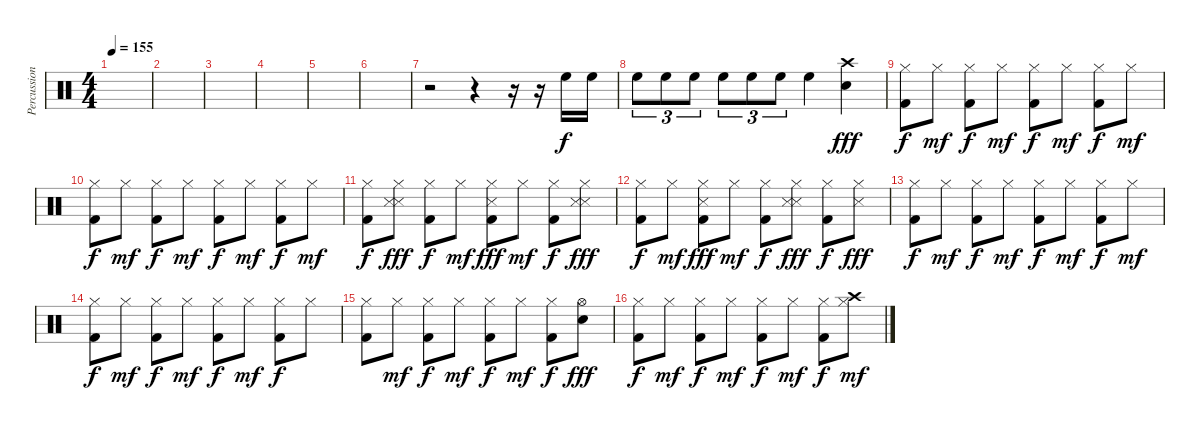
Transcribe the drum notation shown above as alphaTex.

\track ("Percussion" "Percussion") {instrument percussion}
\staff {score}
\articulation defaults
\ts (4 4)
\tempo 155
\clef neutral
\ks c
|
|
|
|
|
|
r.2 r.4 r.16 r.16 "High Floor Tom (hit)".16 "High Floor Tom (hit)".16 |
"High Floor Tom (hit)".8{tu (3 2)} "High Floor Tom (hit)".8{tu (3 2)} "High Floor Tom (hit)".8{tu (3 2)} "High Floor Tom (hit)".8{tu (3 2)} "High Floor Tom (hit)".8{tu (3 2)} "High Floor Tom (hit)".8{tu (3 2)} "High Floor Tom (hit)".4 ("Crash high (hit)" "Snare (hit) 2").4{dy fff} |
("Hi-Hat (closed)" "Kick (hit) 2").8{dy f} "Hi-Hat (closed)".8{dy mf} ("Hi-Hat (closed)" "Kick (hit) 2").8{dy f} "Hi-Hat (closed)".8{dy mf} ("Hi-Hat (closed)" "Kick (hit) 2").8{dy f} "Hi-Hat (closed)".8{dy mf} ("Hi-Hat (closed)" "Kick (hit) 2").8{dy f} "Hi-Hat (closed)".8{dy mf} |
("Hi-Hat (closed)" "Kick (hit) 2").8{dy f} "Hi-Hat (closed)".8{dy mf} ("Hi-Hat (closed)" "Kick (hit) 2").8{dy f} "Hi-Hat (closed)".8{dy mf} ("Hi-Hat (closed)" "Kick (hit) 2").8{dy f} "Hi-Hat (closed)".8{dy mf} ("Hi-Hat (closed)" "Kick (hit) 2").8{dy f} "Hi-Hat (closed)".8{dy mf} |
("Hi-Hat (closed)" "Kick (hit) 2").8{dy f} ("Hi-Hat (closed)" "Snare (side stick) 3" "Snare (side stick) 3").8{dy fff} ("Hi-Hat (closed)" "Kick (hit) 2").8{dy f} "Hi-Hat (closed)".8{dy mf} ("Hi-Hat (closed)" "Snare (side stick) 3" "Kick (hit) 2").8{dy fff} "Hi-Hat (closed)".8{dy mf} ("Hi-Hat (closed)" "Kick (hit) 2").8{dy f} ("Hi-Hat (closed)" "Snare (side stick) 3" "Snare (side stick) 3").8{dy fff} |
("Hi-Hat (closed)" "Kick (hit) 2").8{dy f} "Hi-Hat (closed)".8{dy mf} ("Hi-Hat (closed)" "Snare (side stick) 3" "Kick (hit) 2").8{dy fff} "Hi-Hat (closed)".8{dy mf} ("Hi-Hat (closed)" "Kick (hit) 2").8{dy f} ("Hi-Hat (closed)" "Snare (side stick) 3" "Snare (side stick) 3").8{dy fff} ("Hi-Hat (closed)" "Kick (hit) 2").8{dy f} ("Hi-Hat (closed)" "Snare (side stick) 3").8{dy fff} |
("Hi-Hat (closed)" "Kick (hit) 2").8{dy f} "Hi-Hat (closed)".8{dy mf} ("Hi-Hat (closed)" "Kick (hit) 2").8{dy f} "Hi-Hat (closed)".8{dy mf} ("Hi-Hat (closed)" "Kick (hit) 2").8{dy f} "Hi-Hat (closed)".8{dy mf} ("Hi-Hat (closed)" "Kick (hit) 2").8{dy f} "Hi-Hat (closed)".8{dy mf} |
("Hi-Hat (closed)" "Kick (hit) 2").8{dy f} "Hi-Hat (closed)".8{dy mf} ("Hi-Hat (closed)" "Kick (hit) 2").8{dy f} "Hi-Hat (closed)".8{dy mf} ("Hi-Hat (closed)" "Kick (hit) 2").8{dy f} "Hi-Hat (closed)".8{dy mf} ("Hi-Hat (closed)" "Kick (hit) 2").8{dy f} "Hi-Hat (closed)".8 |
("Hi-Hat (closed)" "Kick (hit) 2").8 "Hi-Hat (closed)".8{dy mf} ("Hi-Hat (closed)" "Kick (hit) 2").8{dy f} "Hi-Hat (closed)".8{dy mf} ("Hi-Hat (closed)" "Kick (hit) 2").8{dy f} "Hi-Hat (closed)".8{dy mf} ("Hi-Hat (closed)" "Kick (hit) 2").8{dy f} ("Hi-Hat (open)" "Snare (hit) 2").8{dy fff} |
("Hi-Hat (closed)" "Kick (hit) 2").8{dy f} "Hi-Hat (closed)".8{dy mf} ("Hi-Hat (closed)" "Kick (hit) 2").8{dy f} "Hi-Hat (closed)".8{dy mf} ("Hi-Hat (closed)" "Kick (hit) 2").8{dy f} "Hi-Hat (closed)".8{dy mf} ("Hi-Hat (closed)" "Kick (hit) 2").8{dy f} ("Crash high (hit)" "Hi-Hat (closed)").8{dy mf}
